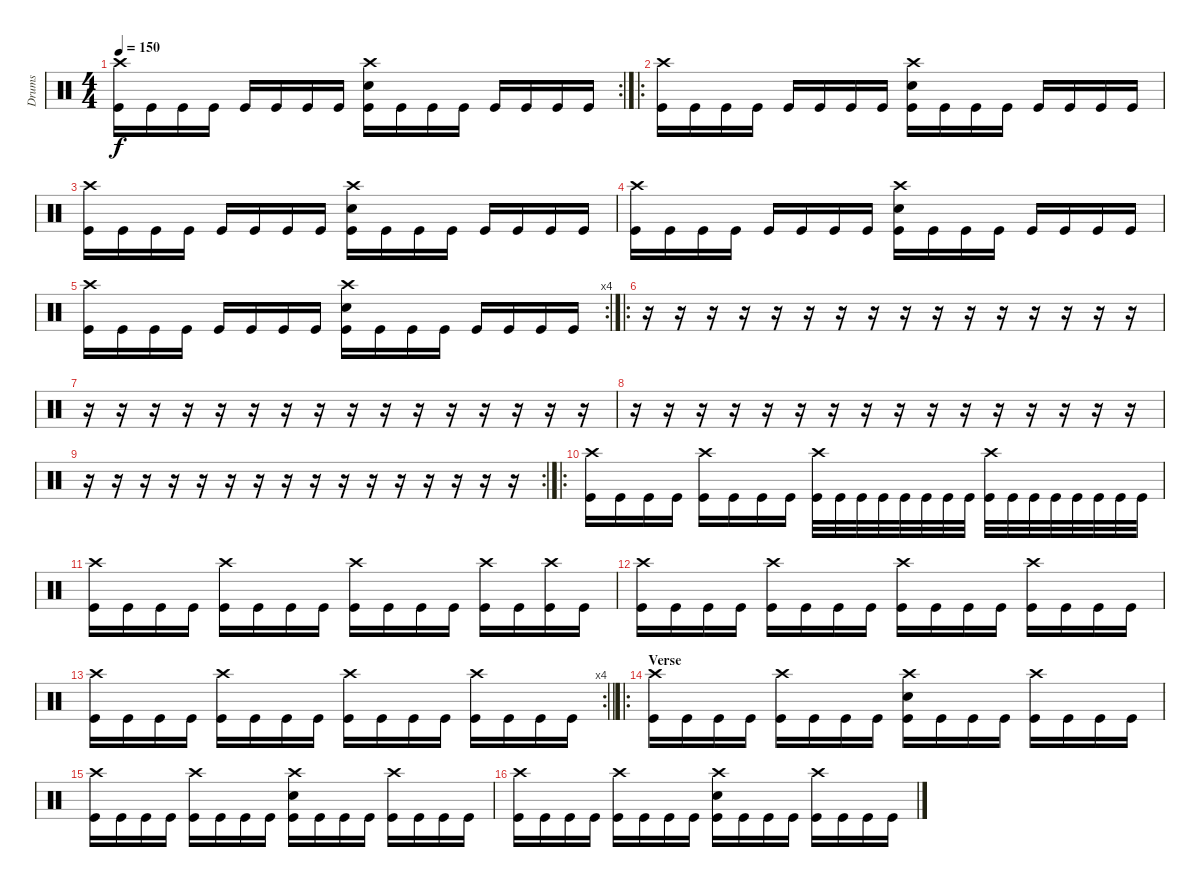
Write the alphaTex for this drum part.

\track ("Drums" "Drums") {instrument percussion}
\staff {score}
\articulation defaults
\rc 2
\ts (4 4)
\tempo 150
\clef neutral
\ks c
("Crash high (hit)" "Kick (hit)").16{dy f} "Kick (hit)".16 "Kick (hit)".16 "Kick (hit)".16 "Kick (hit)".16 "Kick (hit)".16 "Kick (hit)".16 "Kick (hit)".16 ("Electric Snare (hit)" "Crash high (hit)" "Kick (hit)").16 "Kick (hit)".16 "Kick (hit)".16 "Kick (hit)".16 "Kick (hit)".16 "Kick (hit)".16 "Kick (hit)".16 "Kick (hit)".16 |
\ro
("Crash high (hit)" "Kick (hit)").16 "Kick (hit)".16 "Kick (hit)".16 "Kick (hit)".16 "Kick (hit)".16 "Kick (hit)".16 "Kick (hit)".16 "Kick (hit)".16 ("Electric Snare (hit)" "Crash high (hit)" "Kick (hit)").16 "Kick (hit)".16 "Kick (hit)".16 "Kick (hit)".16 "Kick (hit)".16 "Kick (hit)".16 "Kick (hit)".16 "Kick (hit)".16 |
("Crash high (hit)" "Kick (hit)").16 "Kick (hit)".16 "Kick (hit)".16 "Kick (hit)".16 "Kick (hit)".16 "Kick (hit)".16 "Kick (hit)".16 "Kick (hit)".16 ("Electric Snare (hit)" "Crash high (hit)" "Kick (hit)").16 "Kick (hit)".16 "Kick (hit)".16 "Kick (hit)".16 "Kick (hit)".16 "Kick (hit)".16 "Kick (hit)".16 "Kick (hit)".16 |
("Crash high (hit)" "Kick (hit)").16 "Kick (hit)".16 "Kick (hit)".16 "Kick (hit)".16 "Kick (hit)".16 "Kick (hit)".16 "Kick (hit)".16 "Kick (hit)".16 ("Electric Snare (hit)" "Crash high (hit)" "Kick (hit)").16 "Kick (hit)".16 "Kick (hit)".16 "Kick (hit)".16 "Kick (hit)".16 "Kick (hit)".16 "Kick (hit)".16 "Kick (hit)".16 |
\rc 4
("Crash high (hit)" "Kick (hit)").16 "Kick (hit)".16 "Kick (hit)".16 "Kick (hit)".16 "Kick (hit)".16 "Kick (hit)".16 "Kick (hit)".16 "Kick (hit)".16 ("Electric Snare (hit)" "Crash high (hit)" "Kick (hit)").16 "Kick (hit)".16 "Kick (hit)".16 "Kick (hit)".16 "Kick (hit)".16 "Kick (hit)".16 "Kick (hit)".16 "Kick (hit)".16 |
\ro
r.16 r.16 r.16 r.16 r.16 r.16 r.16 r.16 r.16 r.16 r.16 r.16 r.16 r.16 r.16 r.16 |
r.16 r.16 r.16 r.16 r.16 r.16 r.16 r.16 r.16 r.16 r.16 r.16 r.16 r.16 r.16 r.16 |
r.16 r.16 r.16 r.16 r.16 r.16 r.16 r.16 r.16 r.16 r.16 r.16 r.16 r.16 r.16 r.16 |
\rc 2
r.16 r.16 r.16 r.16 r.16 r.16 r.16 r.16 r.16 r.16 r.16 r.16 r.16 r.16 r.16 r.16 |
\ro
("Crash high (hit)" "Kick (hit)").16 "Kick (hit)".16 "Kick (hit)".16 "Kick (hit)".16 ("Crash high (hit)" "Kick (hit)").16 "Kick (hit)".16 "Kick (hit)".16 "Kick (hit)".16 ("Crash high (hit)" "Kick (hit)").32 "Kick (hit)".32 "Kick (hit)".32 "Kick (hit)".32 "Kick (hit)".32 "Kick (hit)".32 "Kick (hit)".32 "Kick (hit)".32 ("Crash high (hit)" "Kick (hit)").32 "Kick (hit)".32 "Kick (hit)".32 "Kick (hit)".32 "Kick (hit)".32 "Kick (hit)".32 "Kick (hit)".32 "Kick (hit)".32 |
("Crash high (hit)" "Kick (hit)").16 "Kick (hit)".16 "Kick (hit)".16 "Kick (hit)".16 ("Crash high (hit)" "Kick (hit)").16 "Kick (hit)".16 "Kick (hit)".16 "Kick (hit)".16 ("Crash high (hit)" "Kick (hit)").16 "Kick (hit)".16 "Kick (hit)".16 "Kick (hit)".16 ("Crash high (hit)" "Kick (hit)").16 "Kick (hit)".16 ("Crash high (hit)" "Kick (hit)").16 "Kick (hit)".16 |
("Crash high (hit)" "Kick (hit)").16 "Kick (hit)".16 "Kick (hit)".16 "Kick (hit)".16 ("Crash high (hit)" "Kick (hit)").16 "Kick (hit)".16 "Kick (hit)".16 "Kick (hit)".16 ("Crash high (hit)" "Kick (hit)").16 "Kick (hit)".16 "Kick (hit)".16 "Kick (hit)".16 ("Crash high (hit)" "Kick (hit)").16 "Kick (hit)".16 "Kick (hit)".16 "Kick (hit)".16 |
\rc 4
\barLineRight lightlight
("Crash high (hit)" "Kick (hit)").16 "Kick (hit)".16 "Kick (hit)".16 "Kick (hit)".16 ("Crash high (hit)" "Kick (hit)").16 "Kick (hit)".16 "Kick (hit)".16 "Kick (hit)".16 ("Crash high (hit)" "Kick (hit)").16 "Kick (hit)".16 "Kick (hit)".16 "Kick (hit)".16 ("Crash high (hit)" "Kick (hit)").16 "Kick (hit)".16 "Kick (hit)".16 "Kick (hit)".16 |
\ro
\section ("" "Verse")
("Crash high (hit)" "Kick (hit)").16 "Kick (hit)".16 "Kick (hit)".16 "Kick (hit)".16 ("Crash high (hit)" "Kick (hit)").16 "Kick (hit)".16 "Kick (hit)".16 "Kick (hit)".16 ("Electric Snare (hit)" "Crash high (hit)" "Kick (hit)").16 "Kick (hit)".16 "Kick (hit)".16 "Kick (hit)".16 ("Crash high (hit)" "Kick (hit)").16 "Kick (hit)".16 "Kick (hit)".16 "Kick (hit)".16 |
("Crash high (hit)" "Kick (hit)").16 "Kick (hit)".16 "Kick (hit)".16 "Kick (hit)".16 ("Crash high (hit)" "Kick (hit)").16 "Kick (hit)".16 "Kick (hit)".16 "Kick (hit)".16 ("Electric Snare (hit)" "Crash high (hit)" "Kick (hit)").16 "Kick (hit)".16 "Kick (hit)".16 "Kick (hit)".16 ("Crash high (hit)" "Kick (hit)").16 "Kick (hit)".16 "Kick (hit)".16 "Kick (hit)".16 |
("Crash high (hit)" "Kick (hit)").16 "Kick (hit)".16 "Kick (hit)".16 "Kick (hit)".16 ("Crash high (hit)" "Kick (hit)").16 "Kick (hit)".16 "Kick (hit)".16 "Kick (hit)".16 ("Electric Snare (hit)" "Crash high (hit)" "Kick (hit)").16 "Kick (hit)".16 "Kick (hit)".16 "Kick (hit)".16 ("Crash high (hit)" "Kick (hit)").16 "Kick (hit)".16 "Kick (hit)".16 "Kick (hit)".16
